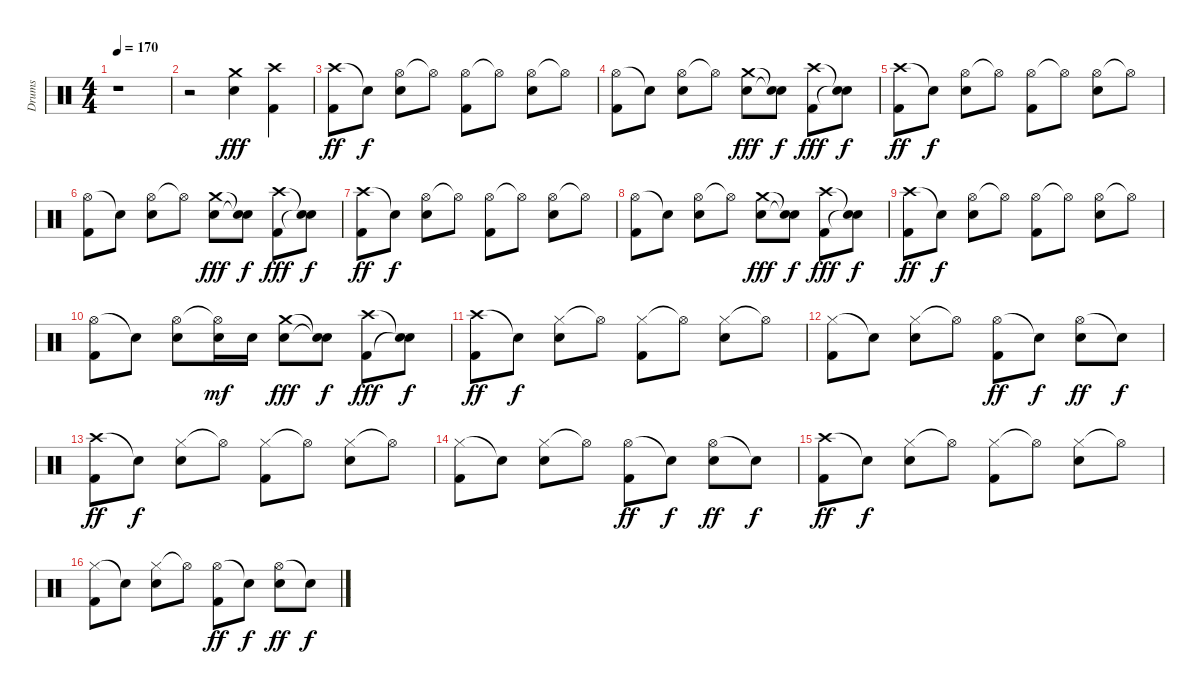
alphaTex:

\track ("Drums" "Drums") {instrument percussion}
\staff {score}
\articulation defaults
\ts (4 4)
\tempo 170
\clef neutral
\ks c
r.1{dy fff} |
r.2 ("Crash medium (hit)" "Snare (hit) 2").4 ("Crash high (hit)" "Kick (hit) 2").4 |
("Crash high (hit)" "Kick (hit) 2").8{dy ff} "Snare (hit)"{t}.8{dy f} ("Hi-Hat (open)" "Snare (hit) 2").8 "Hi-Hat (open)"{t}.8 ("Hi-Hat (open)" "Kick (hit) 2").8 "Hi-Hat (open)"{t}.8 ("Hi-Hat (open)" "Snare (hit) 2").8 "Hi-Hat (open)"{t}.8 |
("Hi-Hat (open)" "Kick (hit) 2").8 "Snare (hit)"{t}.8 ("Hi-Hat (open)" "Snare (hit) 2").8 "Hi-Hat (open)"{t}.8 ("Crash medium (hit)" "Snare (hit) 2").8{dy fff} ("Snare (hit)"{t} "Snare (hit)"{t}).8{dy f} ("Crash high (hit)" "Kick (hit) 2").8{dy fff} ("Snare (hit)"{t} "Snare (hit)"{t}).8{dy f} |
("Crash high (hit)" "Kick (hit) 2").8{dy ff} "Snare (hit)"{t}.8{dy f} ("Hi-Hat (open)" "Snare (hit) 2").8 "Hi-Hat (open)"{t}.8 ("Hi-Hat (open)" "Kick (hit) 2").8 "Hi-Hat (open)"{t}.8 ("Hi-Hat (open)" "Snare (hit) 2").8 "Hi-Hat (open)"{t}.8 |
("Hi-Hat (open)" "Kick (hit) 2").8 "Snare (hit)"{t}.8 ("Hi-Hat (open)" "Snare (hit) 2").8 "Hi-Hat (open)"{t}.8 ("Crash medium (hit)" "Snare (hit) 2").8{dy fff} ("Snare (hit)"{t} "Snare (hit)"{t}).8{dy f} ("Crash high (hit)" "Kick (hit) 2").8{dy fff} ("Snare (hit)"{t} "Snare (hit)"{t}).8{dy f} |
("Crash high (hit)" "Kick (hit) 2").8{dy ff} "Snare (hit)"{t}.8{dy f} ("Hi-Hat (open)" "Snare (hit) 2").8 "Hi-Hat (open)"{t}.8 ("Hi-Hat (open)" "Kick (hit) 2").8 "Hi-Hat (open)"{t}.8 ("Hi-Hat (open)" "Snare (hit) 2").8 "Hi-Hat (open)"{t}.8 |
("Hi-Hat (open)" "Kick (hit) 2").8 "Snare (hit)"{t}.8 ("Hi-Hat (open)" "Snare (hit) 2").8 "Hi-Hat (open)"{t}.8 ("Crash medium (hit)" "Snare (hit) 2").8{dy fff} ("Snare (hit)"{t} "Snare (hit)"{t}).8{dy f} ("Crash high (hit)" "Kick (hit) 2").8{dy fff} ("Snare (hit)"{t} "Snare (hit)"{t}).8{dy f} |
("Crash high (hit)" "Kick (hit) 2").8{dy ff} "Snare (hit)"{t}.8{dy f} ("Hi-Hat (open)" "Snare (hit) 2").8 "Hi-Hat (open)"{t}.8 ("Hi-Hat (open)" "Kick (hit) 2").8 "Hi-Hat (open)"{t}.8 ("Hi-Hat (open)" "Snare (hit) 2").8 "Hi-Hat (open)"{t}.8 |
("Hi-Hat (open)" "Kick (hit) 2").8 "Snare (hit)"{t}.8 ("Hi-Hat (open)" "Snare (hit) 2").8 ("Hi-Hat (open)"{t} "Snare (hit) 2").16{dy mf} "Snare (hit) 2".16 ("Crash medium (hit)" "Snare (hit) 2").8{dy fff} ("Snare (hit)"{t} "Snare (hit)"{t}).8{dy f} ("Crash high (hit)" "Kick (hit) 2").8{dy fff} ("Snare (hit)"{t} "Snare (hit)"{t}).8{dy f} |
("Crash high (hit)" "Kick (hit) 2").8{dy ff} "Snare (hit)"{t}.8{dy f} ("Hi-Hat (closed)" "Snare (hit) 2").8 "Hi-Hat (open)"{t}.8 ("Hi-Hat (closed)" "Kick (hit) 2").8 "Hi-Hat (open)"{t}.8 ("Hi-Hat (closed)" "Snare (hit) 2").8 "Hi-Hat (open)"{t}.8 |
("Hi-Hat (closed)" "Kick (hit) 2").8 "Snare (hit)"{t}.8 ("Hi-Hat (closed)" "Snare (hit) 2").8 "Hi-Hat (open)"{t}.8 ("Hi-Hat (open)" "Kick (hit) 2").8{dy ff} "Snare (hit)"{t}.8{dy f} ("Hi-Hat (open)" "Snare (hit) 2").8{dy ff} "Snare (hit)"{t}.8{dy f} |
("Crash high (hit)" "Kick (hit) 2").8{dy ff} "Snare (hit)"{t}.8{dy f} ("Hi-Hat (closed)" "Snare (hit) 2").8 "Hi-Hat (open)"{t}.8 ("Hi-Hat (closed)" "Kick (hit) 2").8 "Hi-Hat (open)"{t}.8 ("Hi-Hat (closed)" "Snare (hit) 2").8 "Hi-Hat (open)"{t}.8 |
("Hi-Hat (closed)" "Kick (hit) 2").8 "Snare (hit)"{t}.8 ("Hi-Hat (closed)" "Snare (hit) 2").8 "Hi-Hat (open)"{t}.8 ("Hi-Hat (open)" "Kick (hit) 2").8{dy ff} "Snare (hit)"{t}.8{dy f} ("Hi-Hat (open)" "Snare (hit) 2").8{dy ff} "Snare (hit)"{t}.8{dy f} |
("Crash high (hit)" "Kick (hit) 2").8{dy ff} "Snare (hit)"{t}.8{dy f} ("Hi-Hat (closed)" "Snare (hit) 2").8 "Hi-Hat (open)"{t}.8 ("Hi-Hat (closed)" "Kick (hit) 2").8 "Hi-Hat (open)"{t}.8 ("Hi-Hat (closed)" "Snare (hit) 2").8 "Hi-Hat (open)"{t}.8 |
("Hi-Hat (closed)" "Kick (hit) 2").8 "Snare (hit)"{t}.8 ("Hi-Hat (closed)" "Snare (hit) 2").8 "Hi-Hat (open)"{t}.8 ("Hi-Hat (open)" "Kick (hit) 2").8{dy ff} "Snare (hit)"{t}.8{dy f} ("Hi-Hat (open)" "Snare (hit) 2").8{dy ff} "Snare (hit)"{t}.8{dy f}
